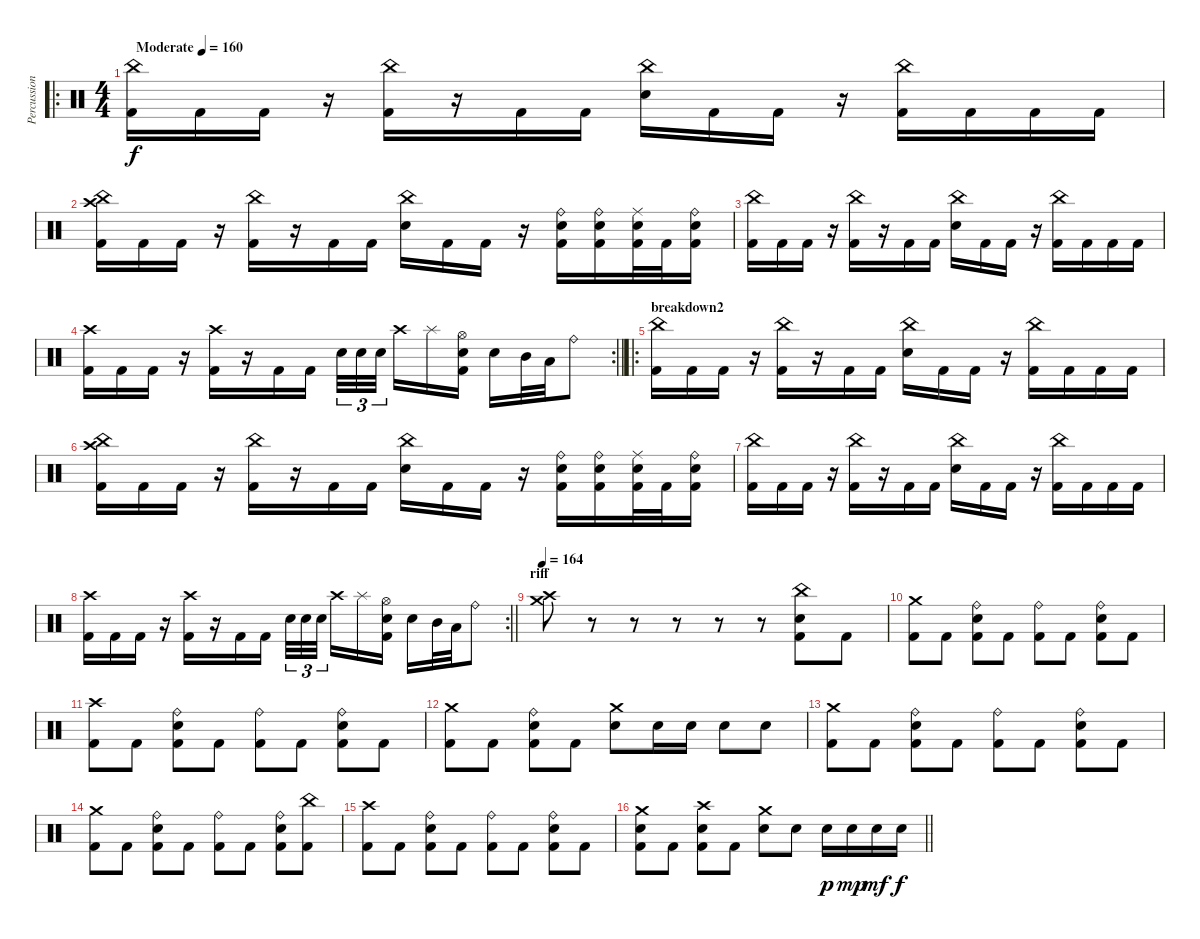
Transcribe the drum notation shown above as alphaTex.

\track ("Percussions" "Percussion") {instrument percussion}
\staff {score}
\articulation defaults
\ro
\ts (4 4)
\tempo (160 "Moderate")
\tempo 115
\tempo (160 "Moderate")
\clef neutral
\ks c
("China (hit)" "Kick (hit) 2").16{dy f} "Kick (hit) 2".16 "Kick (hit) 2".16 r.16 ("China (hit)" "Kick (hit) 2").16 r.16 "Kick (hit) 2".16 "Kick (hit) 2".16 ("China (hit)" "Electric Snare (hit)").16 "Kick (hit) 2".16 "Kick (hit) 2".16 r.16 ("China (hit)" "Kick (hit) 2").16 "Kick (hit) 2".16 "Kick (hit) 2".16 "Kick (hit) 2".16 |
("China (hit)" "Crash high (hit)" "Kick (hit) 2").16 "Kick (hit) 2".16 "Kick (hit) 2".16 r.16 ("China (hit)" "Kick (hit) 2").16 r.16 "Kick (hit) 2".16 "Kick (hit) 2".16 ("China (hit)" "Electric Snare (hit)").16 "Kick (hit) 2".16 "Kick (hit) 2".16 r.16 ("Ride (bell)" "Electric Snare (hit)" "Kick (hit) 2").16 ("Ride (bell)" "Electric Snare (hit)" "Kick (hit) 2").16 ("Ride (middle)" "Electric Snare (hit)" "Kick (hit) 2").32 "Kick (hit) 2".32 ("Ride (bell)" "Electric Snare (hit)" "Kick (hit) 2").16 |
("China (hit)" "Kick (hit) 2").16 "Kick (hit) 2".16 "Kick (hit) 2".16 r.16 ("China (hit)" "Kick (hit) 2").16 r.16 "Kick (hit) 2".16 "Kick (hit) 2".16 ("China (hit)" "Electric Snare (hit)").16 "Kick (hit) 2".16 "Kick (hit) 2".16 r.16 ("China (hit)" "Kick (hit) 2").16 "Kick (hit) 2".16 "Kick (hit) 2".16 "Kick (hit) 2".16 |
\rc 2
\barLineRight lightlight
("Crash high (hit)" "Kick (hit) 2").16 "Kick (hit) 2".16 "Kick (hit) 2".16 r.16 ("Crash high (hit)" "Kick (hit) 2").16 r.16 "Kick (hit) 2".16 "Kick (hit) 2".16 "Electric Snare (hit)".32{tu (3 2)} "Electric Snare (hit)".32{tu (3 2)} "Electric Snare (hit)".32{tu (3 2) beam splitsecondary} "Crash high (hit)".16 "Splash (hit)".16 ("Hi-Hat (open)" "Electric Snare (hit)" "Kick (hit) 2").16 "Electric Snare (hit)".16 "Mid Tom (hit)".32 "Low Floor Tom (hit)".32 "Ride (bell)".8 |
\ro
\section ("" "breakdown2")
("China (hit)" "Kick (hit) 2").16 "Kick (hit) 2".16 "Kick (hit) 2".16 r.16 ("China (hit)" "Kick (hit) 2").16 r.16 "Kick (hit) 2".16 "Kick (hit) 2".16 ("China (hit)" "Electric Snare (hit)").16 "Kick (hit) 2".16 "Kick (hit) 2".16 r.16 ("China (hit)" "Kick (hit) 2").16 "Kick (hit) 2".16 "Kick (hit) 2".16 "Kick (hit) 2".16 |
("China (hit)" "Crash high (hit)" "Kick (hit) 2").16 "Kick (hit) 2".16 "Kick (hit) 2".16 r.16 ("China (hit)" "Kick (hit) 2").16 r.16 "Kick (hit) 2".16 "Kick (hit) 2".16 ("China (hit)" "Electric Snare (hit)").16 "Kick (hit) 2".16 "Kick (hit) 2".16 r.16 ("Ride (bell)" "Electric Snare (hit)" "Kick (hit) 2").16 ("Ride (bell)" "Electric Snare (hit)" "Kick (hit) 2").16 ("Ride (middle)" "Electric Snare (hit)" "Kick (hit) 2").32 "Kick (hit) 2".32 ("Ride (bell)" "Electric Snare (hit)" "Kick (hit) 2").16 |
("China (hit)" "Kick (hit) 2").16 "Kick (hit) 2".16 "Kick (hit) 2".16 r.16 ("China (hit)" "Kick (hit) 2").16 r.16 "Kick (hit) 2".16 "Kick (hit) 2".16 ("China (hit)" "Electric Snare (hit)").16 "Kick (hit) 2".16 "Kick (hit) 2".16 r.16 ("China (hit)" "Kick (hit) 2").16 "Kick (hit) 2".16 "Kick (hit) 2".16 "Kick (hit) 2".16 |
\rc 2
\barLineRight lightlight
("Crash high (hit)" "Kick (hit) 2").16 "Kick (hit) 2".16 "Kick (hit) 2".16 r.16 ("Crash high (hit)" "Kick (hit) 2").16 r.16 "Kick (hit) 2".16 "Kick (hit) 2".16 "Electric Snare (hit)".32{tu (3 2)} "Electric Snare (hit)".32{tu (3 2)} "Electric Snare (hit)".32{tu (3 2) beam splitsecondary} "Crash high (hit)".16 "Splash (hit)".16 ("Hi-Hat (open)" "Electric Snare (hit)" "Kick (hit) 2").16 "Electric Snare (hit)".16 "Mid Tom (hit)".32 "Low Floor Tom (hit)".32 "Ride (bell)".8 |
\section ("" "riff")
\tempo 164
("Crash medium (hit)" "Crash high (hit)").8 r.8{volume 0} r.8 r.8 r.8 r.8 ("China (hit)" "Electric Snare (hit)" "Kick (hit) 2").8{volume 13} "Kick (hit) 2".8 |
("Crash medium (hit)" "Kick (hit) 2").8 "Kick (hit) 2".8 ("Ride (bell)" "Electric Snare (hit)" "Kick (hit) 2").8 "Kick (hit) 2".8 ("Ride (bell)" "Kick (hit) 2").8 "Kick (hit) 2".8 ("Ride (bell)" "Electric Snare (hit)" "Kick (hit) 2").8 "Kick (hit) 2".8 |
("Crash high (hit)" "Kick (hit) 2").8 "Kick (hit) 2".8 ("Ride (bell)" "Electric Snare (hit)" "Kick (hit) 2").8 "Kick (hit) 2".8 ("Ride (bell)" "Kick (hit) 2").8 "Kick (hit) 2".8 ("Ride (bell)" "Electric Snare (hit)" "Kick (hit) 2").8 "Kick (hit) 2".8 |
("Crash medium (hit)" "Kick (hit) 2").8 "Kick (hit) 2".8 ("Ride (bell)" "Electric Snare (hit)" "Kick (hit) 2").8 "Kick (hit) 2".8 ("Crash medium (hit)" "Electric Snare (hit)").8 "Electric Snare (hit)".16 "Electric Snare (hit)".16 "Electric Snare (hit)".8 "Electric Snare (hit)".8 |
("Crash medium (hit)" "Kick (hit) 2").8 "Kick (hit) 2".8 ("Ride (bell)" "Electric Snare (hit)" "Kick (hit) 2").8 "Kick (hit) 2".8 ("Ride (bell)" "Kick (hit) 2").8 "Kick (hit) 2".8 ("Ride (bell)" "Electric Snare (hit)" "Kick (hit) 2").8 "Kick (hit) 2".8 |
("Crash medium (hit)" "Kick (hit) 2").8 "Kick (hit) 2".8 ("Ride (bell)" "Electric Snare (hit)" "Kick (hit) 2").8 "Kick (hit) 2".8 ("Ride (bell)" "Kick (hit) 2").8 "Kick (hit) 2".8 ("Ride (bell)" "Electric Snare (hit)" "Kick (hit) 2").8 ("China (hit)" "Kick (hit) 2").8 |
("Crash high (hit)" "Kick (hit) 2").8 "Kick (hit) 2".8 ("Ride (bell)" "Electric Snare (hit)" "Kick (hit) 2").8 "Kick (hit) 2".8 ("Ride (bell)" "Kick (hit) 2").8 "Kick (hit) 2".8 ("Ride (bell)" "Electric Snare (hit)" "Kick (hit) 2").8 "Kick (hit) 2".8 |
\barLineRight lightlight
("Crash medium (hit)" "Electric Snare (hit)" "Kick (hit) 2").8 "Kick (hit) 2".8 ("Crash high (hit)" "Electric Snare (hit)" "Kick (hit) 2").8 "Kick (hit) 2".8 ("Crash medium (hit)" "Electric Snare (hit)").8 "Electric Snare (hit)".8 "Electric Snare (hit)".16{dy p} "Electric Snare (hit)".16{dy mp} "Electric Snare (hit)".16{dy mf} "Electric Snare (hit)".16{dy f}
